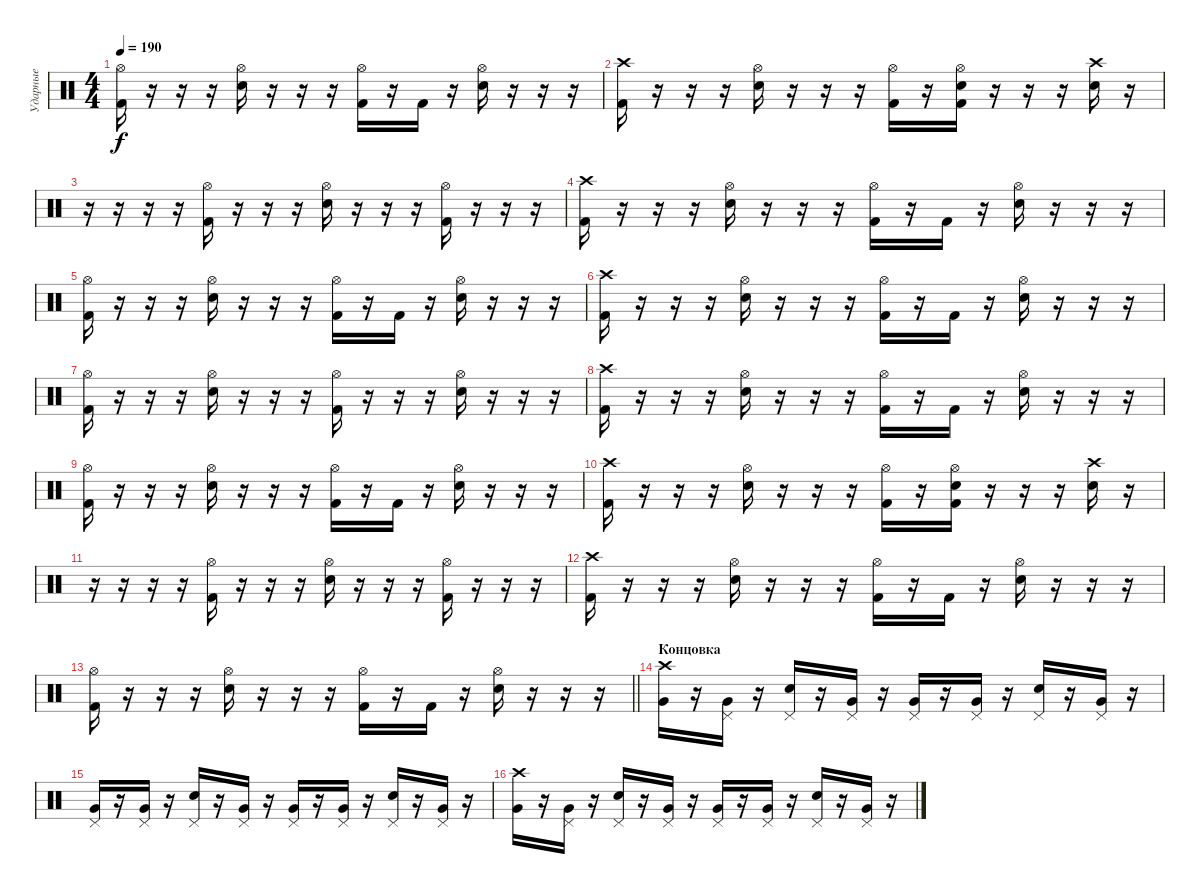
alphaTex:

\track ("Ударные" "Ударные") {instrument percussion}
\staff {score}
\articulation defaults
\ts (4 4)
\tempo 190
\clef neutral
\ks c
("Hi-Hat (open)" "Kick (hit) 2").16{dy f} r.16 r.16 r.16 ("Electric Snare (hit)" "Hi-Hat (open)").16 r.16 r.16 r.16 ("Kick (hit) 2" "Hi-Hat (open)").16 r.16 "Kick (hit) 2".16 r.16 ("Electric Snare (hit)" "Hi-Hat (open)").16 r.16 r.16 r.16 |
("Crash high (hit)" "Kick (hit) 2").16 r.16 r.16 r.16 ("Electric Snare (hit)" "Hi-Hat (open)").16 r.16 r.16 r.16 ("Kick (hit) 2" "Hi-Hat (open)").16 r.16 ("Kick (hit) 2" "Hi-Hat (open)" "Electric Snare (hit)").16 r.16 r.16 r.16 ("Crash high (hit)" "Electric Snare (hit)").16 r.16 |
r.16 r.16 r.16 r.16 ("Hi-Hat (open)" "Kick (hit) 2").16 r.16 r.16 r.16 ("Hi-Hat (open)" "Electric Snare (hit)").16 r.16 r.16 r.16 ("Hi-Hat (open)" "Kick (hit) 2").16 r.16 r.16 r.16 |
("Crash high (hit)" "Kick (hit) 2").16 r.16 r.16 r.16 ("Electric Snare (hit)" "Hi-Hat (open)").16 r.16 r.16 r.16 ("Kick (hit) 2" "Hi-Hat (open)").16 r.16 "Kick (hit) 2".16 r.16 ("Electric Snare (hit)" "Hi-Hat (open)").16 r.16 r.16 r.16 |
("Hi-Hat (open)" "Kick (hit) 2").16 r.16 r.16 r.16 ("Electric Snare (hit)" "Hi-Hat (open)").16 r.16 r.16 r.16 ("Kick (hit) 2" "Hi-Hat (open)").16 r.16 "Kick (hit) 2".16 r.16 ("Electric Snare (hit)" "Hi-Hat (open)").16 r.16 r.16 r.16 |
("Crash high (hit)" "Kick (hit) 2").16 r.16 r.16 r.16 ("Electric Snare (hit)" "Hi-Hat (open)").16 r.16 r.16 r.16 ("Kick (hit) 2" "Hi-Hat (open)").16 r.16 "Kick (hit) 2".16 r.16 ("Electric Snare (hit)" "Hi-Hat (open)").16 r.16 r.16 r.16 |
("Hi-Hat (open)" "Kick (hit) 2").16 r.16 r.16 r.16 ("Electric Snare (hit)" "Hi-Hat (open)").16 r.16 r.16 r.16 ("Kick (hit) 2" "Hi-Hat (open)").16 r.16 r.16 r.16 ("Electric Snare (hit)" "Hi-Hat (open)").16 r.16 r.16 r.16 |
("Crash high (hit)" "Kick (hit) 2").16 r.16 r.16 r.16 ("Electric Snare (hit)" "Hi-Hat (open)").16 r.16 r.16 r.16 ("Kick (hit) 2" "Hi-Hat (open)").16 r.16 "Kick (hit) 2".16 r.16 ("Electric Snare (hit)" "Hi-Hat (open)").16 r.16 r.16 r.16 |
("Hi-Hat (open)" "Kick (hit) 2").16 r.16 r.16 r.16 ("Electric Snare (hit)" "Hi-Hat (open)").16 r.16 r.16 r.16 ("Kick (hit) 2" "Hi-Hat (open)").16 r.16 "Kick (hit) 2".16 r.16 ("Electric Snare (hit)" "Hi-Hat (open)").16 r.16 r.16 r.16 |
("Crash high (hit)" "Kick (hit) 2").16 r.16 r.16 r.16 ("Electric Snare (hit)" "Hi-Hat (open)").16 r.16 r.16 r.16 ("Kick (hit) 2" "Hi-Hat (open)").16 r.16 ("Kick (hit) 2" "Hi-Hat (open)" "Electric Snare (hit)").16 r.16 r.16 r.16 ("Crash high (hit)" "Electric Snare (hit)").16 r.16 |
r.16 r.16 r.16 r.16 ("Hi-Hat (open)" "Kick (hit) 2").16 r.16 r.16 r.16 ("Hi-Hat (open)" "Electric Snare (hit)").16 r.16 r.16 r.16 ("Hi-Hat (open)" "Kick (hit) 2").16 r.16 r.16 r.16 |
("Crash high (hit)" "Kick (hit) 2").16 r.16 r.16 r.16 ("Electric Snare (hit)" "Hi-Hat (open)").16 r.16 r.16 r.16 ("Kick (hit) 2" "Hi-Hat (open)").16 r.16 "Kick (hit) 2".16 r.16 ("Electric Snare (hit)" "Hi-Hat (open)").16 r.16 r.16 r.16 |
\barLineRight lightlight
("Hi-Hat (open)" "Kick (hit) 2").16 r.16 r.16 r.16 ("Electric Snare (hit)" "Hi-Hat (open)").16 r.16 r.16 r.16 ("Kick (hit) 2" "Hi-Hat (open)").16 r.16 "Kick (hit) 2".16 r.16 ("Electric Snare (hit)" "Hi-Hat (open)").16 r.16 r.16 r.16 |
\section ("" "Концовка")
("Very Low Tom (hit)" "Crash high (hit)").16 r.16 ("Very Low Tom (hit)" "Pedal Hi-Hat (hit)").16 r.16 ("Electric Snare (hit)" "Pedal Hi-Hat (hit)").16 r.16 ("Very Low Tom (hit)" "Pedal Hi-Hat (hit)").16 r.16 ("Very Low Tom (hit)" "Pedal Hi-Hat (hit)").16 r.16 ("Very Low Tom (hit)" "Pedal Hi-Hat (hit)").16 r.16 ("Electric Snare (hit)" "Pedal Hi-Hat (hit)").16 r.16 ("Very Low Tom (hit)" "Pedal Hi-Hat (hit)").16 r.16 |
("Very Low Tom (hit)" "Pedal Hi-Hat (hit)").16 r.16 ("Very Low Tom (hit)" "Pedal Hi-Hat (hit)").16 r.16 ("Electric Snare (hit)" "Pedal Hi-Hat (hit)").16 r.16 ("Very Low Tom (hit)" "Pedal Hi-Hat (hit)").16 r.16 ("Very Low Tom (hit)" "Pedal Hi-Hat (hit)").16 r.16 ("Very Low Tom (hit)" "Pedal Hi-Hat (hit)").16 r.16 ("Electric Snare (hit)" "Pedal Hi-Hat (hit)").16 r.16 ("Very Low Tom (hit)" "Pedal Hi-Hat (hit)").16 r.16 |
("Very Low Tom (hit)" "Crash high (hit)").16 r.16 ("Very Low Tom (hit)" "Pedal Hi-Hat (hit)").16 r.16 ("Electric Snare (hit)" "Pedal Hi-Hat (hit)").16 r.16 ("Very Low Tom (hit)" "Pedal Hi-Hat (hit)").16 r.16 ("Very Low Tom (hit)" "Pedal Hi-Hat (hit)").16 r.16 ("Very Low Tom (hit)" "Pedal Hi-Hat (hit)").16 r.16 ("Electric Snare (hit)" "Pedal Hi-Hat (hit)").16 r.16 ("Very Low Tom (hit)" "Pedal Hi-Hat (hit)").16 r.16
